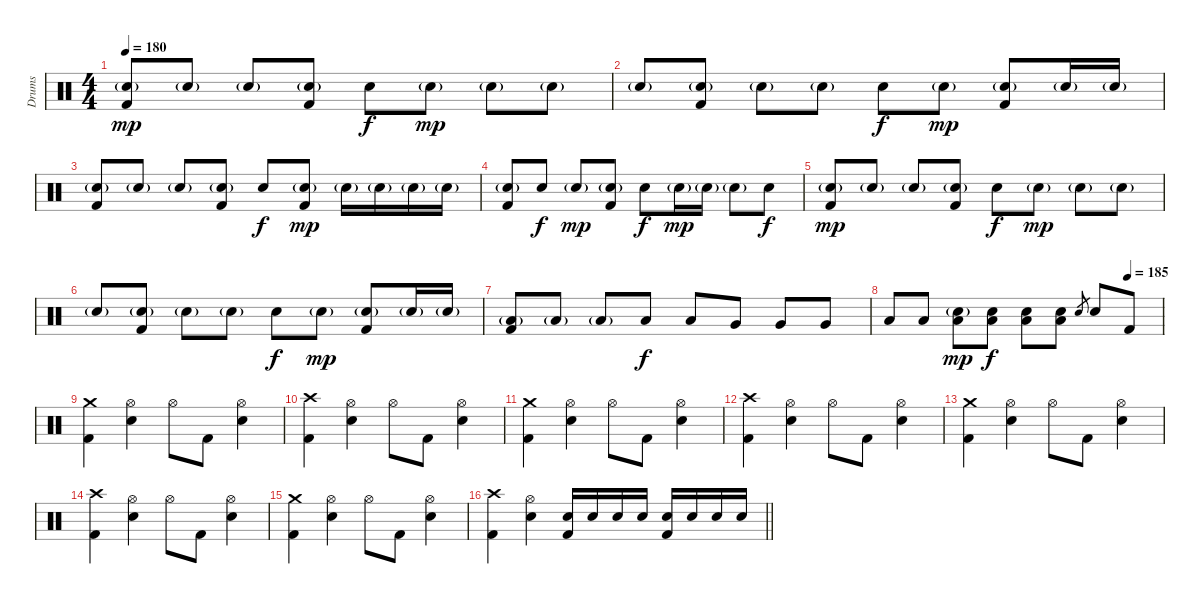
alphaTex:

\track ("Drums" "Drums") {instrument percussion}
\staff {score}
\articulation defaults
\ts (4 4)
\tempo 180
\clef neutral
\ks c
("Electric Snare (hit)"{g} "Kick (hit) 2").8{dy mp} "Electric Snare (hit)"{g}.8 "Electric Snare (hit)"{g}.8 ("Electric Snare (hit)"{g} "Kick (hit) 2").8 "Electric Snare (hit)".8{dy f} "Electric Snare (hit)"{g}.8{dy mp} "Electric Snare (hit)"{g}.8 "Electric Snare (hit)"{g}.8 |
"Electric Snare (hit)"{g}.8 ("Electric Snare (hit)"{g} "Kick (hit) 2").8 "Electric Snare (hit)"{g}.8 "Electric Snare (hit)"{g}.8 "Electric Snare (hit)".8{dy f} "Electric Snare (hit)"{g}.8{dy mp} ("Electric Snare (hit)"{g} "Kick (hit) 2").8 "Electric Snare (hit)"{g}.16 "Electric Snare (hit)"{g}.16 |
("Electric Snare (hit)"{g} "Kick (hit) 2").8 "Electric Snare (hit)"{g}.8 "Electric Snare (hit)"{g}.8 ("Electric Snare (hit)"{g} "Kick (hit) 2").8 "Electric Snare (hit)".8{dy f} ("Electric Snare (hit)"{g} "Kick (hit) 2").8{dy mp} "Electric Snare (hit)"{g}.16 "Electric Snare (hit)"{g}.16 "Electric Snare (hit)"{g}.16 "Electric Snare (hit)"{g}.16 |
("Electric Snare (hit)"{g} "Kick (hit) 2").8 "Electric Snare (hit)".8{dy f} "Electric Snare (hit)"{g}.8{dy mp} ("Electric Snare (hit)"{g} "Kick (hit) 2").8 "Electric Snare (hit)".8{dy f} "Electric Snare (hit)"{g}.16{dy mp} "Electric Snare (hit)"{g}.16 "Electric Snare (hit)"{g}.8 "Electric Snare (hit)".8{dy f} |
("Electric Snare (hit)"{g} "Kick (hit) 2").8{dy mp} "Electric Snare (hit)"{g}.8 "Electric Snare (hit)"{g}.8 ("Electric Snare (hit)"{g} "Kick (hit) 2").8 "Electric Snare (hit)".8{dy f} "Electric Snare (hit)"{g}.8{dy mp} "Electric Snare (hit)"{g}.8 "Electric Snare (hit)"{g}.8 |
"Electric Snare (hit)"{g}.8 ("Electric Snare (hit)"{g} "Kick (hit) 2").8 "Electric Snare (hit)"{g}.8 "Electric Snare (hit)"{g}.8 "Electric Snare (hit)".8{dy f} "Electric Snare (hit)"{g}.8{dy mp} ("Electric Snare (hit)"{g} "Kick (hit) 2").8 "Electric Snare (hit)"{g}.16 "Electric Snare (hit)"{g}.16 |
("Low Floor Tom (hit)"{g} "Kick (hit) 2").8 "Low Floor Tom (hit)"{g}.8 "Low Floor Tom (hit)"{g}.8 "Low Floor Tom (hit)".8{dy f} "Low Floor Tom (hit)".8 "Very Low Tom (hit)".8 "Very Low Tom (hit)".8 "Very Low Tom (hit)".8 |
\tempo (185 0.875)
"Low Tom (hit)".8 "Low Tom (hit)".8 ("Electric Snare (hit)"{g} "Low Tom (hit)").8{dy mp} ("Electric Snare (hit)" "Low Tom (hit)").8{dy f} ("Electric Snare (hit)" "Low Tom (hit)").8 ("Electric Snare (hit)" "Low Tom (hit)").8 "Electric Snare (hit)".8{gr} "Electric Snare (hit)".8 "Kick (hit) 2".8 |
("Crash medium (hit)" "Kick (hit) 2").4 ("Hi-Hat (open)" "Electric Snare (hit)").4 "Hi-Hat (open)".8 "Kick (hit) 2".8 ("Hi-Hat (open)" "Electric Snare (hit)").4 |
("Crash high (hit)" "Kick (hit) 2").4 ("Hi-Hat (open)" "Electric Snare (hit)").4 "Hi-Hat (open)".8 "Kick (hit) 2".8 ("Hi-Hat (open)" "Electric Snare (hit)").4 |
("Crash medium (hit)" "Kick (hit) 2").4 ("Hi-Hat (open)" "Electric Snare (hit)").4 "Hi-Hat (open)".8 "Kick (hit) 2".8 ("Hi-Hat (open)" "Electric Snare (hit)").4 |
("Crash high (hit)" "Kick (hit) 2").4 ("Hi-Hat (open)" "Electric Snare (hit)").4 "Hi-Hat (open)".8 "Kick (hit) 2".8 ("Hi-Hat (open)" "Electric Snare (hit)").4 |
("Crash medium (hit)" "Kick (hit) 2").4 ("Hi-Hat (open)" "Electric Snare (hit)").4 "Hi-Hat (open)".8 "Kick (hit) 2".8 ("Hi-Hat (open)" "Electric Snare (hit)").4 |
("Crash high (hit)" "Kick (hit) 2").4 ("Hi-Hat (open)" "Electric Snare (hit)").4 "Hi-Hat (open)".8 "Kick (hit) 2".8 ("Hi-Hat (open)" "Electric Snare (hit)").4 |
("Crash medium (hit)" "Kick (hit) 2").4 ("Hi-Hat (open)" "Electric Snare (hit)").4 "Hi-Hat (open)".8 "Kick (hit) 2".8 ("Hi-Hat (open)" "Electric Snare (hit)").4 |
\barLineRight lightlight
("Crash high (hit)" "Kick (hit) 2").4 ("Hi-Hat (open)" "Electric Snare (hit)").4 ("Electric Snare (hit)" "Kick (hit) 2").16 "Electric Snare (hit)".16 "Electric Snare (hit)".16 "Electric Snare (hit)".16 ("Electric Snare (hit)" "Kick (hit) 2").16 "Electric Snare (hit)".16 "Electric Snare (hit)".16 "Electric Snare (hit)".16
